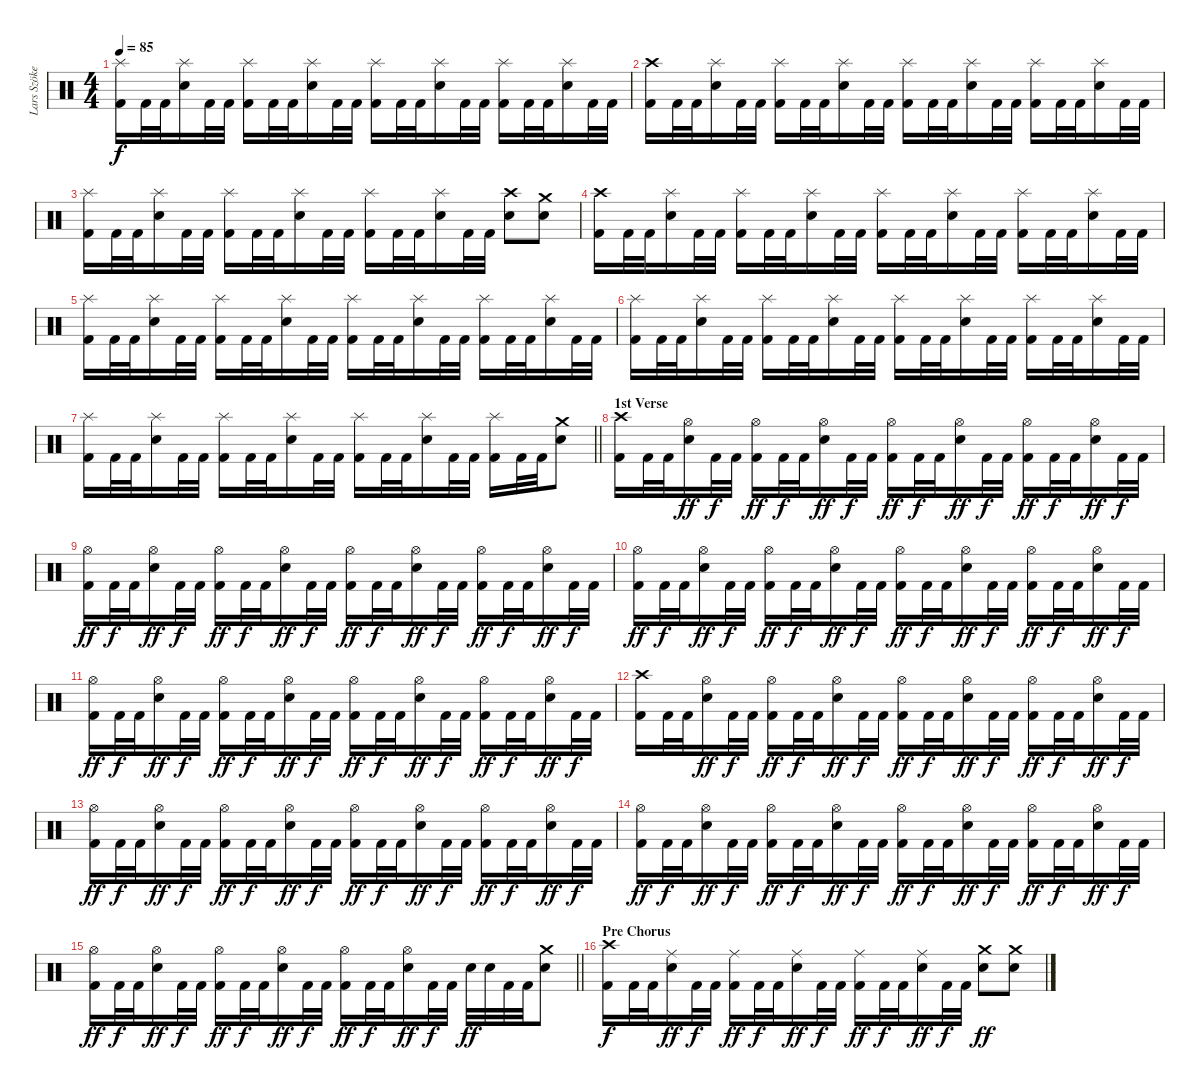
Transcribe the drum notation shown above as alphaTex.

\track ("Lars Szöke" "Lars Szöke") {instrument percussion}
\staff {score}
\articulation defaults
\ts (4 4)
\tempo 85
\clef neutral
\ks c
("Splash (hit)" "Kick (hit) 2").16{dy f} "Kick (hit) 2".32 "Kick (hit) 2".32 ("Splash (hit)" "Snare (hit) 2").16 "Kick (hit) 2".32 "Kick (hit) 2".32 ("Splash (hit)" "Kick (hit) 2").16 "Kick (hit) 2".32 "Kick (hit) 2".32 ("Splash (hit)" "Snare (hit) 2").16 "Kick (hit) 2".32 "Kick (hit) 2".32 ("Splash (hit)" "Kick (hit) 2").16 "Kick (hit) 2".32 "Kick (hit) 2".32 ("Splash (hit)" "Snare (hit) 2").16 "Kick (hit) 2".32 "Kick (hit) 2".32 ("Splash (hit)" "Kick (hit) 2").16 "Kick (hit) 2".32 "Kick (hit) 2".32 ("Splash (hit)" "Snare (hit) 2").16 "Kick (hit) 2".32 "Kick (hit) 2".32 |
("Crash high (hit)" "Kick (hit) 2").16 "Kick (hit) 2".32 "Kick (hit) 2".32 ("Splash (hit)" "Snare (hit) 2").16 "Kick (hit) 2".32 "Kick (hit) 2".32 ("Splash (hit)" "Kick (hit) 2").16 "Kick (hit) 2".32 "Kick (hit) 2".32 ("Splash (hit)" "Snare (hit) 2").16 "Kick (hit) 2".32 "Kick (hit) 2".32 ("Splash (hit)" "Kick (hit) 2").16 "Kick (hit) 2".32 "Kick (hit) 2".32 ("Splash (hit)" "Snare (hit) 2").16 "Kick (hit) 2".32 "Kick (hit) 2".32 ("Splash (hit)" "Kick (hit) 2").16 "Kick (hit) 2".32 "Kick (hit) 2".32 ("Splash (hit)" "Snare (hit) 2").16 "Kick (hit) 2".32 "Kick (hit) 2".32 |
("Splash (hit)" "Kick (hit) 2").16 "Kick (hit) 2".32 "Kick (hit) 2".32 ("Splash (hit)" "Snare (hit) 2").16 "Kick (hit) 2".32 "Kick (hit) 2".32 ("Splash (hit)" "Kick (hit) 2").16 "Kick (hit) 2".32 "Kick (hit) 2".32 ("Splash (hit)" "Snare (hit) 2").16 "Kick (hit) 2".32 "Kick (hit) 2".32 ("Splash (hit)" "Kick (hit) 2").16 "Kick (hit) 2".32 "Kick (hit) 2".32 ("Splash (hit)" "Snare (hit) 2").16 "Kick (hit) 2".32 "Kick (hit) 2".32 ("Crash high (hit)" "Snare (hit) 2").8 ("Crash medium (hit)" "Snare (hit) 2").8 |
("Crash high (hit)" "Kick (hit) 2").16 "Kick (hit) 2".32 "Kick (hit) 2".32 ("Splash (hit)" "Snare (hit) 2").16 "Kick (hit) 2".32 "Kick (hit) 2".32 ("Splash (hit)" "Kick (hit) 2").16 "Kick (hit) 2".32 "Kick (hit) 2".32 ("Splash (hit)" "Snare (hit) 2").16 "Kick (hit) 2".32 "Kick (hit) 2".32 ("Splash (hit)" "Kick (hit) 2").16 "Kick (hit) 2".32 "Kick (hit) 2".32 ("Splash (hit)" "Snare (hit) 2").16 "Kick (hit) 2".32 "Kick (hit) 2".32 ("Splash (hit)" "Kick (hit) 2").16 "Kick (hit) 2".32 "Kick (hit) 2".32 ("Splash (hit)" "Snare (hit) 2").16 "Kick (hit) 2".32 "Kick (hit) 2".32 |
("Splash (hit)" "Kick (hit) 2").16 "Kick (hit) 2".32 "Kick (hit) 2".32 ("Splash (hit)" "Snare (hit) 2").16 "Kick (hit) 2".32 "Kick (hit) 2".32 ("Splash (hit)" "Kick (hit) 2").16 "Kick (hit) 2".32 "Kick (hit) 2".32 ("Splash (hit)" "Snare (hit) 2").16 "Kick (hit) 2".32 "Kick (hit) 2".32 ("Splash (hit)" "Kick (hit) 2").16 "Kick (hit) 2".32 "Kick (hit) 2".32 ("Splash (hit)" "Snare (hit) 2").16 "Kick (hit) 2".32 "Kick (hit) 2".32 ("Splash (hit)" "Kick (hit) 2").16 "Kick (hit) 2".32 "Kick (hit) 2".32 ("Splash (hit)" "Snare (hit) 2").16 "Kick (hit) 2".32 "Kick (hit) 2".32 |
("Splash (hit)" "Kick (hit) 2").16 "Kick (hit) 2".32 "Kick (hit) 2".32 ("Splash (hit)" "Snare (hit) 2").16 "Kick (hit) 2".32 "Kick (hit) 2".32 ("Splash (hit)" "Kick (hit) 2").16 "Kick (hit) 2".32 "Kick (hit) 2".32 ("Splash (hit)" "Snare (hit) 2").16 "Kick (hit) 2".32 "Kick (hit) 2".32 ("Splash (hit)" "Kick (hit) 2").16 "Kick (hit) 2".32 "Kick (hit) 2".32 ("Splash (hit)" "Snare (hit) 2").16 "Kick (hit) 2".32 "Kick (hit) 2".32 ("Splash (hit)" "Kick (hit) 2").16 "Kick (hit) 2".32 "Kick (hit) 2".32 ("Splash (hit)" "Snare (hit) 2").16 "Kick (hit) 2".32 "Kick (hit) 2".32 |
\barLineRight lightlight
("Splash (hit)" "Kick (hit) 2").16 "Kick (hit) 2".32 "Kick (hit) 2".32 ("Splash (hit)" "Snare (hit) 2").16 "Kick (hit) 2".32 "Kick (hit) 2".32 ("Splash (hit)" "Kick (hit) 2").16 "Kick (hit) 2".32 "Kick (hit) 2".32 ("Splash (hit)" "Snare (hit) 2").16 "Kick (hit) 2".32 "Kick (hit) 2".32 ("Splash (hit)" "Kick (hit) 2").16 "Kick (hit) 2".32 "Kick (hit) 2".32 ("Splash (hit)" "Snare (hit) 2").16 "Kick (hit) 2".32 "Kick (hit) 2".32 ("Splash (hit)" "Kick (hit) 2").16 "Kick (hit) 2".32 "Kick (hit) 2".32 ("Crash medium (hit)" "Snare (hit) 2").8 |
\section ("" "1st Verse")
("Crash high (hit)" "Kick (hit) 2").16 "Kick (hit) 2".32 "Kick (hit) 2".32 ("Hi-Hat (open)" "Snare (hit) 2").16{dy ff} "Kick (hit) 2".32{dy f} "Kick (hit) 2".32 ("Hi-Hat (open)" "Kick (hit) 2").16{dy ff} "Kick (hit) 2".32{dy f} "Kick (hit) 2".32 ("Hi-Hat (open)" "Snare (hit) 2").16{dy ff} "Kick (hit) 2".32{dy f} "Kick (hit) 2".32 ("Hi-Hat (open)" "Kick (hit) 2").16{dy ff} "Kick (hit) 2".32{dy f} "Kick (hit) 2".32 ("Hi-Hat (open)" "Snare (hit) 2").16{dy ff} "Kick (hit) 2".32{dy f} "Kick (hit) 2".32 ("Hi-Hat (open)" "Kick (hit) 2").16{dy ff} "Kick (hit) 2".32{dy f} "Kick (hit) 2".32 ("Hi-Hat (open)" "Snare (hit) 2").16{dy ff} "Kick (hit) 2".32{dy f} "Kick (hit) 2".32 |
("Hi-Hat (open)" "Kick (hit) 2").16{dy ff} "Kick (hit) 2".32{dy f} "Kick (hit) 2".32 ("Hi-Hat (open)" "Snare (hit) 2").16{dy ff} "Kick (hit) 2".32{dy f} "Kick (hit) 2".32 ("Hi-Hat (open)" "Kick (hit) 2").16{dy ff} "Kick (hit) 2".32{dy f} "Kick (hit) 2".32 ("Hi-Hat (open)" "Snare (hit) 2").16{dy ff} "Kick (hit) 2".32{dy f} "Kick (hit) 2".32 ("Hi-Hat (open)" "Kick (hit) 2").16{dy ff} "Kick (hit) 2".32{dy f} "Kick (hit) 2".32 ("Hi-Hat (open)" "Snare (hit) 2").16{dy ff} "Kick (hit) 2".32{dy f} "Kick (hit) 2".32 ("Hi-Hat (open)" "Kick (hit) 2").16{dy ff} "Kick (hit) 2".32{dy f} "Kick (hit) 2".32 ("Hi-Hat (open)" "Snare (hit) 2").16{dy ff} "Kick (hit) 2".32{dy f} "Kick (hit) 2".32 |
("Hi-Hat (open)" "Kick (hit) 2").16{dy ff} "Kick (hit) 2".32{dy f} "Kick (hit) 2".32 ("Hi-Hat (open)" "Snare (hit) 2").16{dy ff} "Kick (hit) 2".32{dy f} "Kick (hit) 2".32 ("Hi-Hat (open)" "Kick (hit) 2").16{dy ff} "Kick (hit) 2".32{dy f} "Kick (hit) 2".32 ("Hi-Hat (open)" "Snare (hit) 2").16{dy ff} "Kick (hit) 2".32{dy f} "Kick (hit) 2".32 ("Hi-Hat (open)" "Kick (hit) 2").16{dy ff} "Kick (hit) 2".32{dy f} "Kick (hit) 2".32 ("Hi-Hat (open)" "Snare (hit) 2").16{dy ff} "Kick (hit) 2".32{dy f} "Kick (hit) 2".32 ("Hi-Hat (open)" "Kick (hit) 2").16{dy ff} "Kick (hit) 2".32{dy f} "Kick (hit) 2".32 ("Hi-Hat (open)" "Snare (hit) 2").16{dy ff} "Kick (hit) 2".32{dy f} "Kick (hit) 2".32 |
("Hi-Hat (open)" "Kick (hit) 2").16{dy ff} "Kick (hit) 2".32{dy f} "Kick (hit) 2".32 ("Hi-Hat (open)" "Snare (hit) 2").16{dy ff} "Kick (hit) 2".32{dy f} "Kick (hit) 2".32 ("Hi-Hat (open)" "Kick (hit) 2").16{dy ff} "Kick (hit) 2".32{dy f} "Kick (hit) 2".32 ("Hi-Hat (open)" "Snare (hit) 2").16{dy ff} "Kick (hit) 2".32{dy f} "Kick (hit) 2".32 ("Hi-Hat (open)" "Kick (hit) 2").16{dy ff} "Kick (hit) 2".32{dy f} "Kick (hit) 2".32 ("Hi-Hat (open)" "Snare (hit) 2").16{dy ff} "Kick (hit) 2".32{dy f} "Kick (hit) 2".32 ("Hi-Hat (open)" "Kick (hit) 2").16{dy ff} "Kick (hit) 2".32{dy f} "Kick (hit) 2".32 ("Hi-Hat (open)" "Snare (hit) 2").16{dy ff} "Kick (hit) 2".32{dy f} "Kick (hit) 2".32 |
("Crash high (hit)" "Kick (hit) 2").16 "Kick (hit) 2".32 "Kick (hit) 2".32 ("Hi-Hat (open)" "Snare (hit) 2").16{dy ff} "Kick (hit) 2".32{dy f} "Kick (hit) 2".32 ("Hi-Hat (open)" "Kick (hit) 2").16{dy ff} "Kick (hit) 2".32{dy f} "Kick (hit) 2".32 ("Hi-Hat (open)" "Snare (hit) 2").16{dy ff} "Kick (hit) 2".32{dy f} "Kick (hit) 2".32 ("Hi-Hat (open)" "Kick (hit) 2").16{dy ff} "Kick (hit) 2".32{dy f} "Kick (hit) 2".32 ("Hi-Hat (open)" "Snare (hit) 2").16{dy ff} "Kick (hit) 2".32{dy f} "Kick (hit) 2".32 ("Hi-Hat (open)" "Kick (hit) 2").16{dy ff} "Kick (hit) 2".32{dy f} "Kick (hit) 2".32 ("Hi-Hat (open)" "Snare (hit) 2").16{dy ff} "Kick (hit) 2".32{dy f} "Kick (hit) 2".32 |
("Hi-Hat (open)" "Kick (hit) 2").16{dy ff} "Kick (hit) 2".32{dy f} "Kick (hit) 2".32 ("Hi-Hat (open)" "Snare (hit) 2").16{dy ff} "Kick (hit) 2".32{dy f} "Kick (hit) 2".32 ("Hi-Hat (open)" "Kick (hit) 2").16{dy ff} "Kick (hit) 2".32{dy f} "Kick (hit) 2".32 ("Hi-Hat (open)" "Snare (hit) 2").16{dy ff} "Kick (hit) 2".32{dy f} "Kick (hit) 2".32 ("Hi-Hat (open)" "Kick (hit) 2").16{dy ff} "Kick (hit) 2".32{dy f} "Kick (hit) 2".32 ("Hi-Hat (open)" "Snare (hit) 2").16{dy ff} "Kick (hit) 2".32{dy f} "Kick (hit) 2".32 ("Hi-Hat (open)" "Kick (hit) 2").16{dy ff} "Kick (hit) 2".32{dy f} "Kick (hit) 2".32 ("Hi-Hat (open)" "Snare (hit) 2").16{dy ff} "Kick (hit) 2".32{dy f} "Kick (hit) 2".32 |
("Hi-Hat (open)" "Kick (hit) 2").16{dy ff} "Kick (hit) 2".32{dy f} "Kick (hit) 2".32 ("Hi-Hat (open)" "Snare (hit) 2").16{dy ff} "Kick (hit) 2".32{dy f} "Kick (hit) 2".32 ("Hi-Hat (open)" "Kick (hit) 2").16{dy ff} "Kick (hit) 2".32{dy f} "Kick (hit) 2".32 ("Hi-Hat (open)" "Snare (hit) 2").16{dy ff} "Kick (hit) 2".32{dy f} "Kick (hit) 2".32 ("Hi-Hat (open)" "Kick (hit) 2").16{dy ff} "Kick (hit) 2".32{dy f} "Kick (hit) 2".32 ("Hi-Hat (open)" "Snare (hit) 2").16{dy ff} "Kick (hit) 2".32{dy f} "Kick (hit) 2".32 ("Hi-Hat (open)" "Kick (hit) 2").16{dy ff} "Kick (hit) 2".32{dy f} "Kick (hit) 2".32 ("Hi-Hat (open)" "Snare (hit) 2").16{dy ff} "Kick (hit) 2".32{dy f} "Kick (hit) 2".32 |
\barLineRight lightlight
("Hi-Hat (open)" "Kick (hit) 2").16{dy ff} "Kick (hit) 2".32{dy f} "Kick (hit) 2".32 ("Hi-Hat (open)" "Snare (hit) 2").16{dy ff} "Kick (hit) 2".32{dy f} "Kick (hit) 2".32 ("Hi-Hat (open)" "Kick (hit) 2").16{dy ff} "Kick (hit) 2".32{dy f} "Kick (hit) 2".32 ("Hi-Hat (open)" "Snare (hit) 2").16{dy ff} "Kick (hit) 2".32{dy f} "Kick (hit) 2".32 ("Hi-Hat (open)" "Kick (hit) 2").16{dy ff} "Kick (hit) 2".32{dy f} "Kick (hit) 2".32 ("Hi-Hat (open)" "Snare (hit) 2").16{dy ff} "Kick (hit) 2".32{dy f} "Kick (hit) 2".32 "Snare (hit) 2".32{dy ff} "Snare (hit) 2".32 "Kick (hit) 2".32 "Kick (hit) 2".32 ("Crash medium (hit)" "Snare (hit) 2").8 |
\section ("" "Pre Chorus")
("Crash high (hit)" "Kick (hit) 2").16{dy f} "Kick (hit) 2".32 "Kick (hit) 2".32 ("Ride (middle)" "Snare (hit) 2").16{dy ff} "Kick (hit) 2".32{dy f} "Kick (hit) 2".32 ("Ride (middle)" "Kick (hit) 2").16{dy ff} "Kick (hit) 2".32{dy f} "Kick (hit) 2".32 ("Ride (middle)" "Snare (hit) 2").16{dy ff} "Kick (hit) 2".32{dy f} "Kick (hit) 2".32 ("Ride (middle)" "Kick (hit) 2").16{dy ff} "Kick (hit) 2".32{dy f} "Kick (hit) 2".32 ("Ride (middle)" "Snare (hit) 2").16{dy ff} "Kick (hit) 2".32{dy f} "Kick (hit) 2".32 ("Crash medium (hit)" "Snare (hit) 2").8{dy ff} ("Crash medium (hit)" "Snare (hit) 2").8
